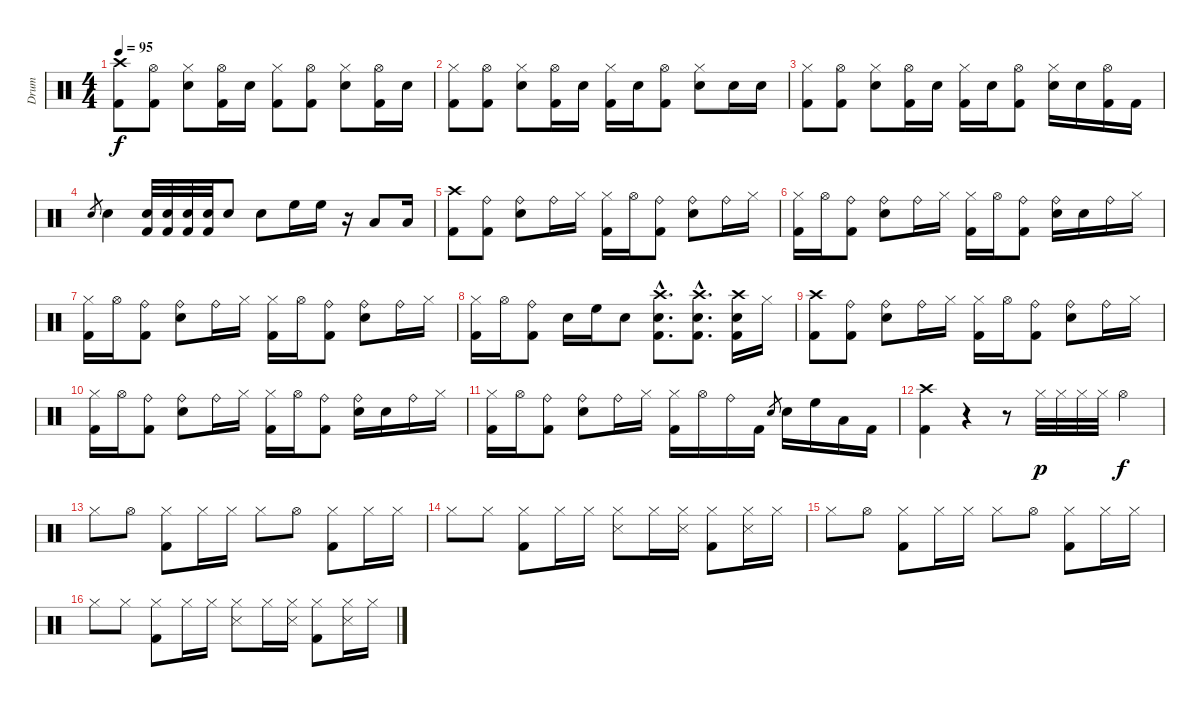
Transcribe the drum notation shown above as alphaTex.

\track ("Drum" "Drum") {instrument percussion}
\staff {score}
\articulation defaults
\ts (4 4)
\tempo 95
\clef neutral
\ks c
("Crash high (hit)" "Kick (hit) 2").8{dy f} ("Hi-Hat (open)" "Kick (hit) 2").8 ("Hi-Hat (closed)" "Electric Snare (hit)").8 ("Hi-Hat (open)" "Kick (hit) 2").16 "Electric Snare (hit)".16 ("Hi-Hat (closed)" "Kick (hit) 2").8 ("Hi-Hat (open)" "Kick (hit) 2").8 ("Hi-Hat (closed)" "Electric Snare (hit)").8 ("Hi-Hat (open)" "Kick (hit) 2").16 "Electric Snare (hit)".16 |
("Hi-Hat (closed)" "Kick (hit) 2").8 ("Hi-Hat (open)" "Kick (hit) 2").8 ("Hi-Hat (closed)" "Electric Snare (hit)").8 ("Hi-Hat (open)" "Kick (hit) 2").16 "Electric Snare (hit)".16 ("Hi-Hat (closed)" "Kick (hit) 2").16 "Electric Snare (hit)".16 ("Hi-Hat (open)" "Kick (hit) 2").8 ("Hi-Hat (closed)" "Electric Snare (hit)").8 "Electric Snare (hit)".16 "Electric Snare (hit)".16 |
("Hi-Hat (closed)" "Kick (hit) 2").8 ("Hi-Hat (open)" "Kick (hit) 2").8 ("Hi-Hat (closed)" "Electric Snare (hit)").8 ("Hi-Hat (open)" "Kick (hit) 2").16 "Electric Snare (hit)".16 ("Hi-Hat (closed)" "Kick (hit) 2").16 "Electric Snare (hit)".16 ("Hi-Hat (open)" "Kick (hit) 2").8 ("Hi-Hat (closed)" "Electric Snare (hit)").16 "Electric Snare (hit)".16 ("Hi-Hat (open)" "Kick (hit) 2").16 "Kick (hit) 2".16 |
"Electric Snare (hit)".8{gr} "Electric Snare (hit)".4 ("Electric Snare (hit)" "Kick (hit) 2").32 ("Electric Snare (hit)" "Kick (hit) 2").32 ("Electric Snare (hit)" "Kick (hit) 2").32 ("Electric Snare (hit)" "Kick (hit) 2").32 "Electric Snare (hit)".8 "Electric Snare (hit)".8 "High Floor Tom (hit)".16 "High Floor Tom (hit)".16 r.16 "Low Tom (hit)".8 "Low Tom (hit)".16 |
("Crash high (hit)" "Kick (hit) 2").8 ("Ride (bell)" "Kick (hit) 2").8 ("Ride (bell)" "Electric Snare (hit)").8 "Ride (bell)".16 "Hi-Hat (closed)".16 ("Hi-Hat (closed)" "Kick (hit) 2").16 "Hi-Hat (open)".16 ("Ride (bell)" "Kick (hit) 2").8 ("Ride (bell)" "Electric Snare (hit)").8 "Ride (bell)".16 "Hi-Hat (closed)".16 |
("Hi-Hat (closed)" "Kick (hit) 2").16 "Hi-Hat (open)".16 ("Ride (bell)" "Kick (hit) 2").8 ("Ride (bell)" "Electric Snare (hit)").8 "Ride (bell)".16 "Hi-Hat (closed)".16 ("Hi-Hat (closed)" "Kick (hit) 2").16 "Hi-Hat (open)".16 ("Ride (bell)" "Kick (hit) 2").8 ("Ride (bell)" "Electric Snare (hit)").16 "Electric Snare (hit)".16 "Ride (bell)".16 "Hi-Hat (closed)".16 |
("Hi-Hat (closed)" "Kick (hit) 2").16 "Hi-Hat (open)".16 ("Ride (bell)" "Kick (hit) 2").8 ("Ride (bell)" "Electric Snare (hit)").8 "Ride (bell)".16 "Hi-Hat (closed)".16 ("Hi-Hat (closed)" "Kick (hit) 2").16 "Hi-Hat (open)".16 ("Ride (bell)" "Kick (hit) 2").8 ("Ride (bell)" "Electric Snare (hit)").8 "Ride (bell)".16 "Hi-Hat (closed)".16 |
("Hi-Hat (closed)" "Kick (hit) 2").16 "Hi-Hat (open)".16 ("Ride (bell)" "Kick (hit) 2").8 "Electric Snare (hit)".16 "High Floor Tom (hit)".16 "Electric Snare (hit)".8 ("Crash high (hit)"{hac} "Electric Snare (hit)"{hac} "Kick (hit) 2"{hac}).8{d} ("Crash high (hit)"{hac} "Electric Snare (hit)"{hac} "Kick (hit) 2"{hac}).8{d} ("Crash high (hit)" "Electric Snare (hit)" "Kick (hit) 2").16 "Hi-Hat (closed)".16 |
("Crash high (hit)" "Kick (hit) 2").8 ("Ride (bell)" "Kick (hit) 2").8 ("Ride (bell)" "Electric Snare (hit)").8 "Ride (bell)".16 "Hi-Hat (closed)".16 ("Hi-Hat (closed)" "Kick (hit) 2").16 "Hi-Hat (open)".16 ("Ride (bell)" "Kick (hit) 2").8 ("Ride (bell)" "Electric Snare (hit)").8 "Ride (bell)".16 "Hi-Hat (closed)".16 |
("Hi-Hat (closed)" "Kick (hit) 2").16 "Hi-Hat (open)".16 ("Ride (bell)" "Kick (hit) 2").8 ("Ride (bell)" "Electric Snare (hit)").8 "Ride (bell)".16 "Hi-Hat (closed)".16 ("Hi-Hat (closed)" "Kick (hit) 2").16 "Hi-Hat (open)".16 ("Ride (bell)" "Kick (hit) 2").8 ("Ride (bell)" "Electric Snare (hit)").16 "Electric Snare (hit)".16 "Ride (bell)".16 "Hi-Hat (closed)".16 |
("Hi-Hat (closed)" "Kick (hit) 2").16 "Hi-Hat (open)".16 ("Ride (bell)" "Kick (hit) 2").8 ("Ride (bell)" "Electric Snare (hit)").8 "Ride (bell)".16 "Hi-Hat (closed)".16 ("Hi-Hat (closed)" "Kick (hit) 2").16 "Hi-Hat (open)".16 "Ride (bell)".16 "Kick (hit) 2".16 "Electric Snare (hit)".8{gr} "Electric Snare (hit)".16 "High Floor Tom (hit)".16 "Low Tom (hit)".16 "Kick (hit) 2".16 |
("Crash high (hit)" "Kick (hit) 2").4 r.4 r.8 "Hi-Hat (closed)".32{dy p} "Hi-Hat (closed)".32 "Hi-Hat (closed)".32 "Hi-Hat (closed)".32 "Hi-Hat (open)".4{dy f} |
"Hi-Hat (closed)".8 "Hi-Hat (open)".8 ("Hi-Hat (closed)" "Kick (hit) 2").8 "Hi-Hat (closed)".16 "Hi-Hat (closed)".16 "Hi-Hat (closed)".8 "Hi-Hat (open)".8 ("Hi-Hat (closed)" "Kick (hit) 2").8 "Hi-Hat (closed)".16 "Hi-Hat (closed)".16 |
"Hi-Hat (closed)".8 "Hi-Hat (closed)".8 ("Hi-Hat (closed)" "Kick (hit) 2").8 "Hi-Hat (closed)".16 "Hi-Hat (closed)".16 ("Hi-Hat (closed)" "Snare (side stick) 3").8 "Hi-Hat (closed)".16 ("Hi-Hat (closed)" "Snare (side stick) 3").16 ("Hi-Hat (closed)" "Kick (hit) 2").8 ("Hi-Hat (closed)" "Snare (side stick) 3").16 "Hi-Hat (closed)".16 |
"Hi-Hat (closed)".8 "Hi-Hat (open)".8 ("Hi-Hat (closed)" "Kick (hit) 2").8 "Hi-Hat (closed)".16 "Hi-Hat (closed)".16 "Hi-Hat (closed)".8 "Hi-Hat (open)".8 ("Hi-Hat (closed)" "Kick (hit) 2").8 "Hi-Hat (closed)".16 "Hi-Hat (closed)".16 |
"Hi-Hat (closed)".8 "Hi-Hat (closed)".8 ("Hi-Hat (closed)" "Kick (hit) 2").8 "Hi-Hat (closed)".16 "Hi-Hat (closed)".16 ("Hi-Hat (closed)" "Snare (side stick) 3").8 "Hi-Hat (closed)".16 ("Hi-Hat (closed)" "Snare (side stick) 3").16 ("Hi-Hat (closed)" "Kick (hit) 2").8 ("Hi-Hat (closed)" "Snare (side stick) 3").16 "Hi-Hat (closed)".16
